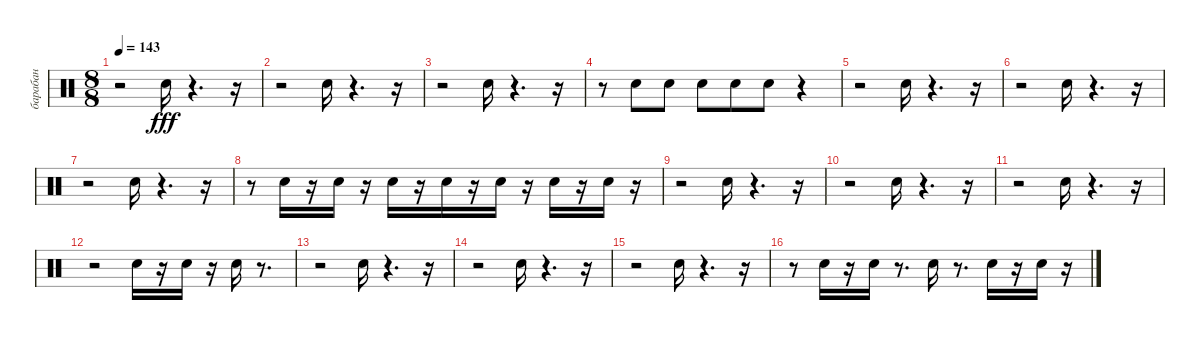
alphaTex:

\track ("барабан" "барабан") {instrument percussion}
\staff {score}
\articulation defaults
\ts (8 8)
\tempo 143
\clef neutral
\ks c
r.2{dy fff} "Snare (hit) 2".16 r.4{d} r.16 |
r.2 "Snare (hit) 2".16 r.4{d} r.16 |
r.2 "Snare (hit) 2".16 r.4{d} r.16 |
r.8 "Snare (hit) 2".8 "Snare (hit) 2".8 "Snare (hit) 2".8 "Snare (hit) 2".8 "Snare (hit) 2".8 r.4 |
r.2 "Snare (hit) 2".16 r.4{d} r.16 |
r.2 "Snare (hit) 2".16 r.4{d} r.16 |
r.2 "Snare (hit) 2".16 r.4{d} r.16 |
r.8 "Snare (hit) 2".16 r.16 "Snare (hit) 2".16 r.16 "Snare (hit) 2".16 r.16 "Snare (hit) 2".16 r.16 "Snare (hit) 2".16 r.16 "Snare (hit) 2".16 r.16 "Snare (hit) 2".16 r.16 |
r.2 "Snare (hit) 2".16 r.4{d} r.16 |
r.2 "Snare (hit) 2".16 r.4{d} r.16 |
r.2 "Snare (hit) 2".16 r.4{d} r.16 |
r.2 "Snare (hit) 2".16 r.16 "Snare (hit) 2".16 r.16 "Snare (hit) 2".16 r.8{d} |
r.2 "Snare (hit) 2".16 r.4{d} r.16 |
r.2 "Snare (hit) 2".16 r.4{d} r.16 |
r.2 "Snare (hit) 2".16 r.4{d} r.16 |
r.8 "Snare (hit) 2".16 r.16 "Snare (hit) 2".16 r.8{d} "Snare (hit) 2".16 r.8{d} "Snare (hit) 2".16 r.16 "Snare (hit) 2".16 r.16
